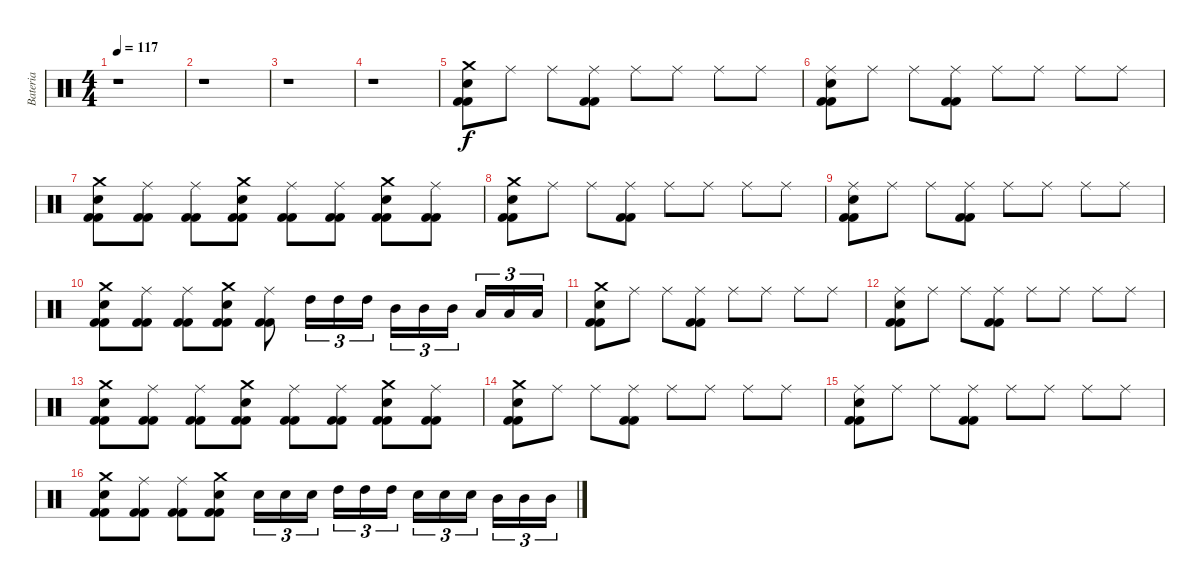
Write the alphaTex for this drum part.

\track ("Bateria" "Bateria") {instrument percussion}
\staff {score}
\articulation defaults
\ts (4 4)
\tempo 117
\clef neutral
\ks c
r.1{dy f} |
r.1 |
r.1 |
r.1 |
("Kick (hit) 2" "Kick (hit) 2" "Snare (hit) 2" "Crash medium (hit)").8 "Ride (middle)".8 "Ride (middle)".8 ("Kick (hit) 2" "Kick (hit) 2" "Ride (middle)").8 "Ride (middle)".8 "Ride (middle)".8 "Ride (middle)".8 "Ride (middle)".8 |
("Kick (hit) 2" "Kick (hit) 2" "Snare (hit) 2" "Ride (middle)").8 "Ride (middle)".8 "Ride (middle)".8 ("Kick (hit) 2" "Kick (hit) 2" "Ride (middle)").8 "Ride (middle)".8 "Ride (middle)".8 "Ride (middle)".8 "Ride (middle)".8 |
("Kick (hit) 2" "Kick (hit) 2" "Snare (hit) 2" "Crash medium (hit)").8 ("Kick (hit) 2" "Kick (hit) 2" "Ride (middle)").8 ("Kick (hit) 2" "Kick (hit) 2" "Ride (middle)").8 ("Kick (hit) 2" "Kick (hit) 2" "Snare (hit) 2" "Crash medium (hit)").8 ("Kick (hit) 2" "Kick (hit) 2" "Ride (middle)").8 ("Kick (hit) 2" "Kick (hit) 2" "Ride (middle)").8 ("Kick (hit) 2" "Kick (hit) 2" "Snare (hit) 2" "Crash medium (hit)").8 ("Kick (hit) 2" "Kick (hit) 2" "Ride (middle)").8 |
("Kick (hit) 2" "Kick (hit) 2" "Snare (hit) 2" "Crash medium (hit)").8 "Ride (middle)".8 "Ride (middle)".8 ("Kick (hit) 2" "Kick (hit) 2" "Ride (middle)").8 "Ride (middle)".8 "Ride (middle)".8 "Ride (middle)".8 "Ride (middle)".8 |
("Kick (hit) 2" "Kick (hit) 2" "Snare (hit) 2" "Ride (middle)").8 "Ride (middle)".8 "Ride (middle)".8 ("Kick (hit) 2" "Kick (hit) 2" "Ride (middle)").8 "Ride (middle)".8 "Ride (middle)".8 "Ride (middle)".8 "Ride (middle)".8 |
("Kick (hit) 2" "Kick (hit) 2" "Snare (hit) 2" "Crash medium (hit)").8 ("Kick (hit) 2" "Kick (hit) 2" "Ride (middle)").8 ("Kick (hit) 2" "Kick (hit) 2" "Ride (middle)").8 ("Kick (hit) 2" "Kick (hit) 2" "Snare (hit) 2" "Crash medium (hit)").8 ("Kick (hit) 2" "Kick (hit) 2" "Ride (middle)").8 "High Tom (hit)".16{tu (3 2)} "High Tom (hit)".16{tu (3 2)} "High Tom (hit)".16{tu (3 2)} "Mid Tom (hit)".16{tu (3 2)} "Mid Tom (hit)".16{tu (3 2)} "Mid Tom (hit)".16{tu (3 2)} "Low Tom (hit)".16{tu (3 2)} "Low Tom (hit)".16{tu (3 2)} "Low Tom (hit)".16{tu (3 2)} |
("Kick (hit) 2" "Kick (hit) 2" "Snare (hit) 2" "Crash medium (hit)").8 "Ride (middle)".8 "Ride (middle)".8 ("Kick (hit) 2" "Kick (hit) 2" "Ride (middle)").8 "Ride (middle)".8 "Ride (middle)".8 "Ride (middle)".8 "Ride (middle)".8 |
("Kick (hit) 2" "Kick (hit) 2" "Snare (hit) 2" "Ride (middle)").8 "Ride (middle)".8 "Ride (middle)".8 ("Kick (hit) 2" "Kick (hit) 2" "Ride (middle)").8 "Ride (middle)".8 "Ride (middle)".8 "Ride (middle)".8 "Ride (middle)".8 |
("Kick (hit) 2" "Kick (hit) 2" "Snare (hit) 2" "Crash medium (hit)").8 ("Kick (hit) 2" "Kick (hit) 2" "Ride (middle)").8 ("Kick (hit) 2" "Kick (hit) 2" "Ride (middle)").8 ("Kick (hit) 2" "Kick (hit) 2" "Snare (hit) 2" "Crash medium (hit)").8 ("Kick (hit) 2" "Kick (hit) 2" "Ride (middle)").8 ("Kick (hit) 2" "Kick (hit) 2" "Ride (middle)").8 ("Kick (hit) 2" "Kick (hit) 2" "Snare (hit) 2" "Crash medium (hit)").8 ("Kick (hit) 2" "Kick (hit) 2" "Ride (middle)").8 |
("Kick (hit) 2" "Kick (hit) 2" "Snare (hit) 2" "Crash medium (hit)").8 "Ride (middle)".8 "Ride (middle)".8 ("Kick (hit) 2" "Kick (hit) 2" "Ride (middle)").8 "Ride (middle)".8 "Ride (middle)".8 "Ride (middle)".8 "Ride (middle)".8 |
("Kick (hit) 2" "Kick (hit) 2" "Snare (hit) 2" "Ride (middle)").8 "Ride (middle)".8 "Ride (middle)".8 ("Kick (hit) 2" "Kick (hit) 2" "Ride (middle)").8 "Ride (middle)".8 "Ride (middle)".8 "Ride (middle)".8 "Ride (middle)".8 |
("Kick (hit) 2" "Kick (hit) 2" "Snare (hit) 2" "Crash medium (hit)").8 ("Kick (hit) 2" "Kick (hit) 2" "Ride (middle)").8 ("Kick (hit) 2" "Kick (hit) 2" "Ride (middle)").8 ("Kick (hit) 2" "Kick (hit) 2" "Snare (hit) 2" "Crash medium (hit)").8 "Snare (hit) 2".16{tu (3 2)} "Snare (hit) 2".16{tu (3 2)} "Snare (hit) 2".16{tu (3 2)} "High Tom (hit)".16{tu (3 2)} "High Tom (hit)".16{tu (3 2)} "High Tom (hit)".16{tu (3 2)} "Snare (hit) 2".16{tu (3 2)} "Snare (hit) 2".16{tu (3 2)} "Snare (hit) 2".16{tu (3 2)} "Mid Tom (hit)".16{tu (3 2)} "Mid Tom (hit)".16{tu (3 2)} "Mid Tom (hit)".16{tu (3 2)}
